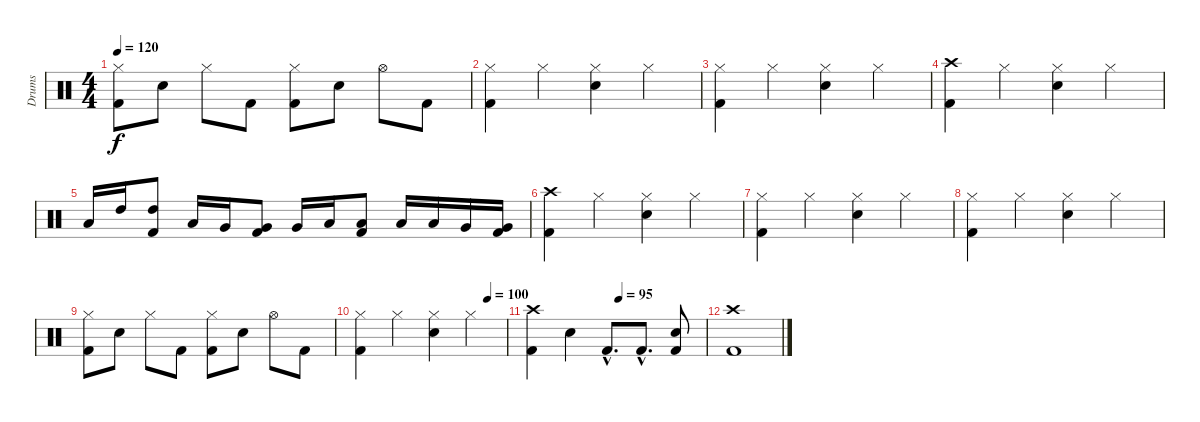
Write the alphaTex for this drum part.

\track ("Drums" "Drums") {instrument percussion}
\staff {score}
\articulation defaults
\ts (4 4)
\tempo 120
\clef neutral
\ks c
("Hi-Hat (closed)" "Kick (hit) 2").8{dy f} "Electric Snare (hit)".8 "Hi-Hat (closed)".8 "Kick (hit) 2".8 ("Hi-Hat (closed)" "Kick (hit) 2").8 "Electric Snare (hit)".8 "Hi-Hat (open)".8 "Kick (hit) 2".8 |
("Hi-Hat (closed)" "Kick (hit) 2").4 "Hi-Hat (closed)".4 ("Hi-Hat (closed)" "Electric Snare (hit)").4 "Hi-Hat (closed)".4 |
("Hi-Hat (closed)" "Kick (hit) 2").4 "Hi-Hat (closed)".4 ("Hi-Hat (closed)" "Electric Snare (hit)").4 "Hi-Hat (closed)".4 |
("Crash high (hit)" "Kick (hit) 2").4 "Hi-Hat (closed)".4 ("Hi-Hat (closed)" "Electric Snare (hit)").4 "Hi-Hat (closed)".4 |
"Low Tom (hit)".16 "High Tom (hit)".16 ("High Tom (hit)" "Kick (hit) 2").8 "Low Tom (hit)".16 "Very Low Tom (hit)".16 ("Very Low Tom (hit)" "Kick (hit) 2").8 "Very Low Tom (hit)".16 "Low Tom (hit)".16 ("Low Tom (hit)" "Kick (hit) 2").8 "Low Floor Tom (hit)".16 "Low Floor Tom (hit)".16 "Very Low Tom (hit)".16 ("Very Low Tom (hit)" "Kick (hit) 2").16 |
("Crash high (hit)" "Kick (hit) 2").4 "Hi-Hat (closed)".4 ("Hi-Hat (closed)" "Electric Snare (hit)").4 "Hi-Hat (closed)".4 |
("Hi-Hat (closed)" "Kick (hit) 2").4 "Hi-Hat (closed)".4 ("Hi-Hat (closed)" "Electric Snare (hit)").4 "Hi-Hat (closed)".4 |
("Hi-Hat (closed)" "Kick (hit) 2").4 "Hi-Hat (closed)".4 ("Hi-Hat (closed)" "Electric Snare (hit)").4 "Hi-Hat (closed)".4 |
("Hi-Hat (closed)" "Kick (hit) 2").8 "Electric Snare (hit)".8 "Hi-Hat (closed)".8 "Kick (hit) 2".8 ("Hi-Hat (closed)" "Kick (hit) 2").8 "Electric Snare (hit)".8 "Hi-Hat (open)".8 "Kick (hit) 2".8 |
\tempo (100 0.875)
("Hi-Hat (closed)" "Kick (hit) 2").4 "Hi-Hat (closed)".4 ("Hi-Hat (closed)" "Electric Snare (hit)").4 "Hi-Hat (closed)".4 |
\tempo (95 0.5)
("Crash high (hit)" "Kick (hit) 2").4 "Electric Snare (hit)".4 "Kick (hit) 2"{hac}.8{d} "Kick (hit) 2"{hac}.8{d} ("Electric Snare (hit)" "Kick (hit) 2").8 |
("Crash high (hit)" "Kick (hit) 2").1
